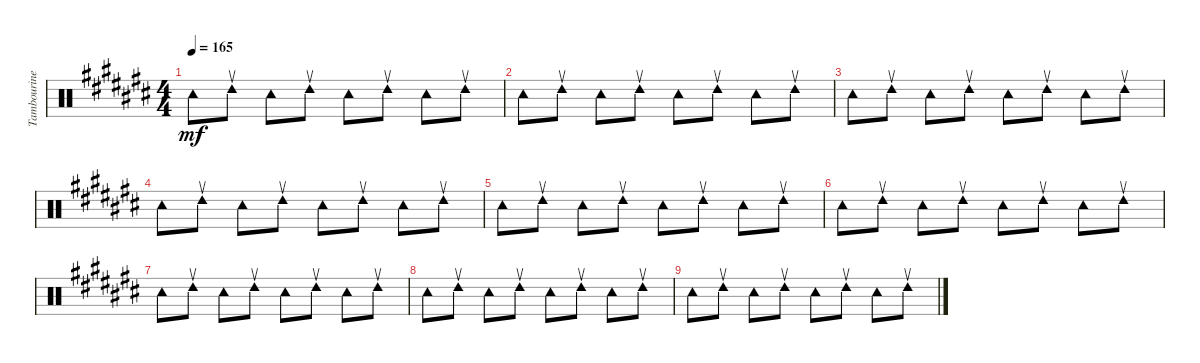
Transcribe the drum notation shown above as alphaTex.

\track ("Tambourine" "Tambourine") {instrument percussion}
\staff {score}
\articulation defaults
\ts (4 4)
\tempo 165
\clef neutral
\ks c# "Tambourine (hit)".8{dy mf} "Tambourine (return)".8 "Tambourine (hit)".8 "Tambourine (return)".8 "Tambourine (hit)".8 "Tambourine (return)".8 "Tambourine (hit)".8 "Tambourine (return)".8
|
"Tambourine (hit)".8 "Tambourine (return)".8 "Tambourine (hit)".8 "Tambourine (return)".8 "Tambourine (hit)".8 "Tambourine (return)".8 "Tambourine (hit)".8 "Tambourine (return)".8 |
"Tambourine (hit)".8 "Tambourine (return)".8 "Tambourine (hit)".8 "Tambourine (return)".8 "Tambourine (hit)".8 "Tambourine (return)".8 "Tambourine (hit)".8 "Tambourine (return)".8 |
"Tambourine (hit)".8 "Tambourine (return)".8 "Tambourine (hit)".8 "Tambourine (return)".8 "Tambourine (hit)".8 "Tambourine (return)".8 "Tambourine (hit)".8 "Tambourine (return)".8 |
"Tambourine (hit)".8 "Tambourine (return)".8 "Tambourine (hit)".8 "Tambourine (return)".8 "Tambourine (hit)".8 "Tambourine (return)".8 "Tambourine (hit)".8 "Tambourine (return)".8 |
"Tambourine (hit)".8 "Tambourine (return)".8 "Tambourine (hit)".8 "Tambourine (return)".8 "Tambourine (hit)".8 "Tambourine (return)".8 "Tambourine (hit)".8 "Tambourine (return)".8 |
"Tambourine (hit)".8 "Tambourine (return)".8 "Tambourine (hit)".8 "Tambourine (return)".8 "Tambourine (hit)".8 "Tambourine (return)".8 "Tambourine (hit)".8 "Tambourine (return)".8 |
"Tambourine (hit)".8 "Tambourine (return)".8 "Tambourine (hit)".8 "Tambourine (return)".8 "Tambourine (hit)".8 "Tambourine (return)".8 "Tambourine (hit)".8 "Tambourine (return)".8 |
"Tambourine (hit)".8 "Tambourine (return)".8 "Tambourine (hit)".8 "Tambourine (return)".8 "Tambourine (hit)".8 "Tambourine (return)".8 "Tambourine (hit)".8 "Tambourine (return)".8
